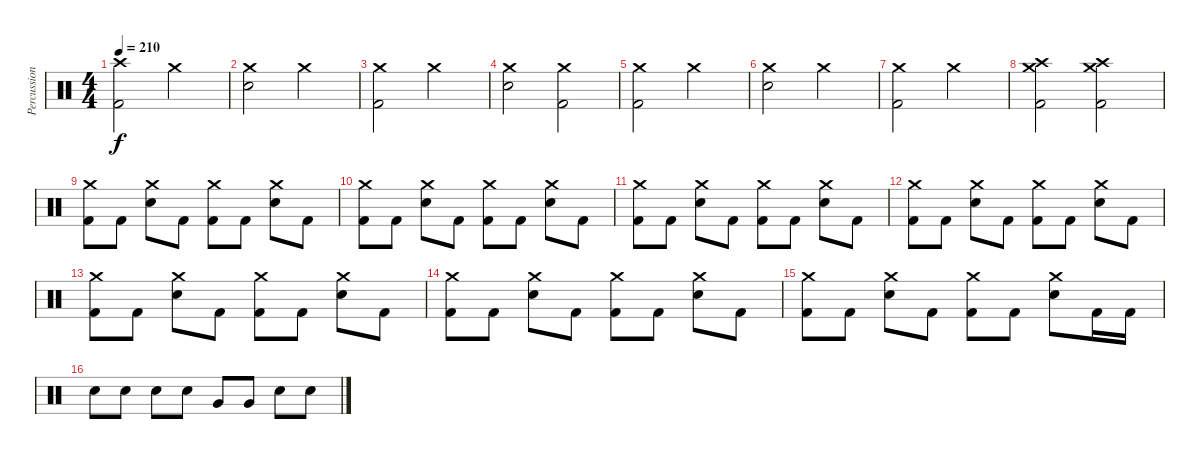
\track ("Percussions" "Percussion") {instrument percussion}
\staff {score}
\articulation defaults
\ts (4 4)
\tempo 210
\clef neutral
\ks c
("Kick (hit) 2" "Crash high (hit)").2{dy f} "Crash medium (hit)".2 |
("Electric Snare (hit)" "Crash medium (hit)").2 "Crash medium (hit)".2 |
("Kick (hit) 2" "Crash medium (hit)").2 "Crash medium (hit)".2 |
("Electric Snare (hit)" "Crash medium (hit)").2 ("Kick (hit) 2" "Crash medium (hit)").2 |
("Kick (hit) 2" "Crash medium (hit)").2 "Crash medium (hit)".2 |
("Electric Snare (hit)" "Crash medium (hit)").2 "Crash medium (hit)".2 |
("Kick (hit) 2" "Crash medium (hit)").2 "Crash medium (hit)".2 |
("Kick (hit) 2" "Crash medium (hit)" "Crash high (hit)").2 ("Kick (hit) 2" "Crash medium (hit)" "Crash high (hit)").2 |
("Kick (hit) 2" "Crash medium (hit)").8 "Kick (hit) 2".8 ("Electric Snare (hit)" "Crash medium (hit)").8 "Kick (hit) 2".8 ("Kick (hit) 2" "Crash medium (hit)").8 "Kick (hit) 2".8 ("Electric Snare (hit)" "Crash medium (hit)").8 "Kick (hit) 2".8 |
("Kick (hit) 2" "Crash medium (hit)").8 "Kick (hit) 2".8 ("Electric Snare (hit)" "Crash medium (hit)").8 "Kick (hit) 2".8 ("Kick (hit) 2" "Crash medium (hit)").8 "Kick (hit) 2".8 ("Electric Snare (hit)" "Crash medium (hit)").8 "Kick (hit) 2".8 |
("Kick (hit) 2" "Crash medium (hit)").8 "Kick (hit) 2".8 ("Electric Snare (hit)" "Crash medium (hit)").8 "Kick (hit) 2".8 ("Kick (hit) 2" "Crash medium (hit)").8 "Kick (hit) 2".8 ("Electric Snare (hit)" "Crash medium (hit)").8 "Kick (hit) 2".8 |
("Kick (hit) 2" "Crash medium (hit)").8 "Kick (hit) 2".8 ("Electric Snare (hit)" "Crash medium (hit)").8 "Kick (hit) 2".8 ("Kick (hit) 2" "Crash medium (hit)").8 "Kick (hit) 2".8 ("Electric Snare (hit)" "Crash medium (hit)").8 "Kick (hit) 2".8 |
("Kick (hit) 2" "Crash medium (hit)").8 "Kick (hit) 2".8 ("Electric Snare (hit)" "Crash medium (hit)").8 "Kick (hit) 2".8 ("Kick (hit) 2" "Crash medium (hit)").8 "Kick (hit) 2".8 ("Electric Snare (hit)" "Crash medium (hit)").8 "Kick (hit) 2".8 |
("Kick (hit) 2" "Crash medium (hit)").8 "Kick (hit) 2".8 ("Electric Snare (hit)" "Crash medium (hit)").8 "Kick (hit) 2".8 ("Kick (hit) 2" "Crash medium (hit)").8 "Kick (hit) 2".8 ("Electric Snare (hit)" "Crash medium (hit)").8 "Kick (hit) 2".8 |
("Kick (hit) 2" "Crash medium (hit)").8 "Kick (hit) 2".8 ("Electric Snare (hit)" "Crash medium (hit)").8 "Kick (hit) 2".8 ("Kick (hit) 2" "Crash medium (hit)").8 "Kick (hit) 2".8 ("Electric Snare (hit)" "Crash medium (hit)").8 "Kick (hit) 2".16 "Kick (hit) 2".16 |
"Electric Snare (hit)".8 "Electric Snare (hit)".8 "Electric Snare (hit)".8 "Electric Snare (hit)".8 "Very Low Tom (hit)".8 "Very Low Tom (hit)".8 "Electric Snare (hit)".8 "Electric Snare (hit)".8
